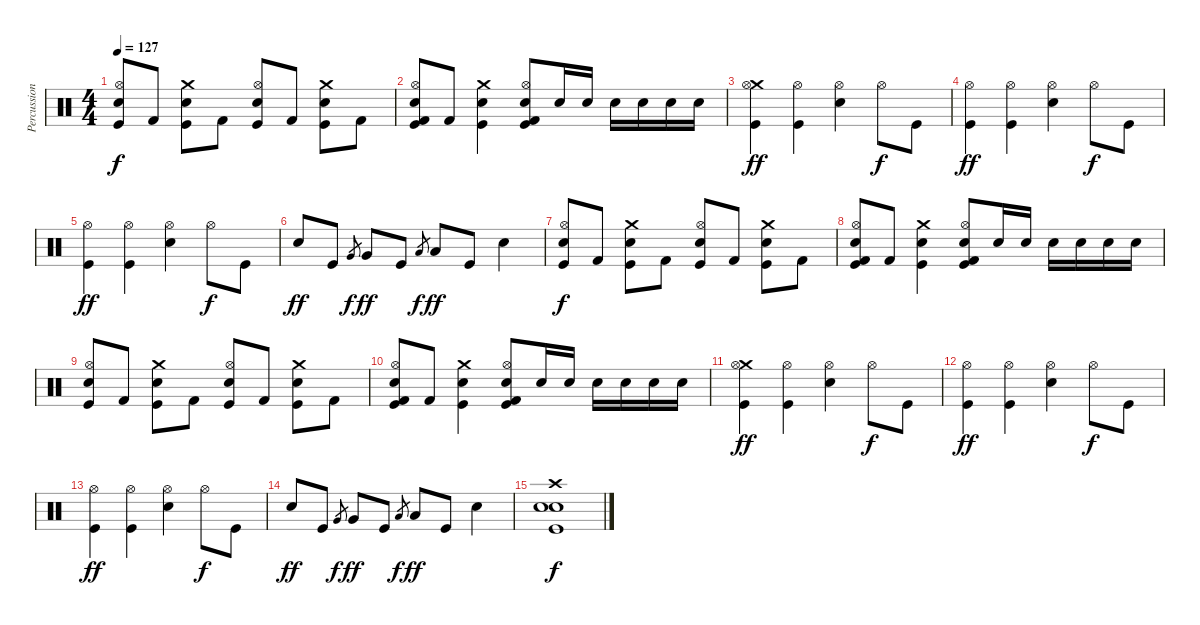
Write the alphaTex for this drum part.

\track ("Percussion" "Percussion") {instrument percussion}
\staff {score}
\articulation defaults
\ts (4 4)
\tempo 127
\clef neutral
\ks c
("Electric Snare (hit)" "Hi-Hat (open)" "Kick (hit)").8{dy f} "Kick (hit) 2".8 ("Electric Snare (hit)" "Crash medium (hit)" "Kick (hit)").8 "Kick (hit) 2".8 ("Electric Snare (hit)" "Hi-Hat (open)" "Kick (hit)").8 "Kick (hit) 2".8 ("Electric Snare (hit)" "Crash medium (hit)" "Kick (hit)").8 "Kick (hit) 2".8 |
("Kick (hit) 2" "Electric Snare (hit)" "Hi-Hat (open)" "Kick (hit)").8 "Kick (hit) 2".8 ("Electric Snare (hit)" "Crash medium (hit)" "Kick (hit)").4 ("Kick (hit) 2" "Electric Snare (hit)" "Hi-Hat (open)" "Kick (hit)").8 "Electric Snare (hit)".16 "Electric Snare (hit)".16 "Electric Snare (hit)".16 "Electric Snare (hit)".16 "Electric Snare (hit)".16 "Electric Snare (hit)".16 |
("Crash medium (hit)" "Hi-Hat (open)" "Kick (hit)").4{dy ff} ("Hi-Hat (open)" "Kick (hit)").4 ("Hi-Hat (open)" "Electric Snare (hit)").4 "Hi-Hat (open)".8{dy f} "Kick (hit)".8 |
("Hi-Hat (open)" "Kick (hit)").4{dy ff} ("Hi-Hat (open)" "Kick (hit)").4 ("Hi-Hat (open)" "Electric Snare (hit)").4 "Hi-Hat (open)".8{dy f} "Kick (hit)".8 |
("Hi-Hat (open)" "Kick (hit)").4{dy ff} ("Hi-Hat (open)" "Kick (hit)").4 ("Hi-Hat (open)" "Electric Snare (hit)").4 "Hi-Hat (open)".8{dy f} "Kick (hit)".8 |
"Electric Snare (hit)".8{dy ff} "Kick (hit)".8 "Very Low Tom (hit)".8{gr dy f} "Very Low Tom (hit)".8{dy ff} "Kick (hit)".8 "Low Floor Tom (hit)".8{gr dy f} "Low Floor Tom (hit)".8{dy ff} "Kick (hit)".8 "Electric Snare (hit)".4 |
("Electric Snare (hit)" "Hi-Hat (open)" "Kick (hit)").8{dy f} "Kick (hit) 2".8 ("Electric Snare (hit)" "Crash medium (hit)" "Kick (hit)").8 "Kick (hit) 2".8 ("Electric Snare (hit)" "Hi-Hat (open)" "Kick (hit)").8 "Kick (hit) 2".8 ("Electric Snare (hit)" "Crash medium (hit)" "Kick (hit)").8 "Kick (hit) 2".8 |
("Kick (hit) 2" "Electric Snare (hit)" "Hi-Hat (open)" "Kick (hit)").8 "Kick (hit) 2".8 ("Electric Snare (hit)" "Crash medium (hit)" "Kick (hit)").4 ("Kick (hit) 2" "Electric Snare (hit)" "Hi-Hat (open)" "Kick (hit)").8 "Electric Snare (hit)".16 "Electric Snare (hit)".16 "Electric Snare (hit)".16 "Electric Snare (hit)".16 "Electric Snare (hit)".16 "Electric Snare (hit)".16 |
("Electric Snare (hit)" "Hi-Hat (open)" "Kick (hit)").8 "Kick (hit) 2".8 ("Electric Snare (hit)" "Crash medium (hit)" "Kick (hit)").8 "Kick (hit) 2".8 ("Electric Snare (hit)" "Hi-Hat (open)" "Kick (hit)").8 "Kick (hit) 2".8 ("Electric Snare (hit)" "Crash medium (hit)" "Kick (hit)").8 "Kick (hit) 2".8 |
("Kick (hit) 2" "Electric Snare (hit)" "Hi-Hat (open)" "Kick (hit)").8 "Kick (hit) 2".8 ("Electric Snare (hit)" "Crash medium (hit)" "Kick (hit)").4 ("Kick (hit) 2" "Electric Snare (hit)" "Hi-Hat (open)" "Kick (hit)").8 "Electric Snare (hit)".16 "Electric Snare (hit)".16 "Electric Snare (hit)".16 "Electric Snare (hit)".16 "Electric Snare (hit)".16 "Electric Snare (hit)".16 |
("Crash medium (hit)" "Hi-Hat (open)" "Kick (hit)").4{dy ff} ("Hi-Hat (open)" "Kick (hit)").4 ("Hi-Hat (open)" "Electric Snare (hit)").4 "Hi-Hat (open)".8{dy f} "Kick (hit)".8 |
("Hi-Hat (open)" "Kick (hit)").4{dy ff} ("Hi-Hat (open)" "Kick (hit)").4 ("Hi-Hat (open)" "Electric Snare (hit)").4 "Hi-Hat (open)".8{dy f} "Kick (hit)".8 |
("Hi-Hat (open)" "Kick (hit)").4{dy ff} ("Hi-Hat (open)" "Kick (hit)").4 ("Hi-Hat (open)" "Electric Snare (hit)").4 "Hi-Hat (open)".8{dy f} "Kick (hit)".8 |
"Electric Snare (hit)".8{dy ff} "Kick (hit)".8 "Very Low Tom (hit)".8{gr dy f} "Very Low Tom (hit)".8{dy ff} "Kick (hit)".8 "Low Floor Tom (hit)".8{gr dy f} "Low Floor Tom (hit)".8{dy ff} "Kick (hit)".8 "Electric Snare (hit)".4 |
("Crash high (hit)" "Electric Snare (hit)" "Snare (hit) 2" "Kick (hit)").1{dy f}
